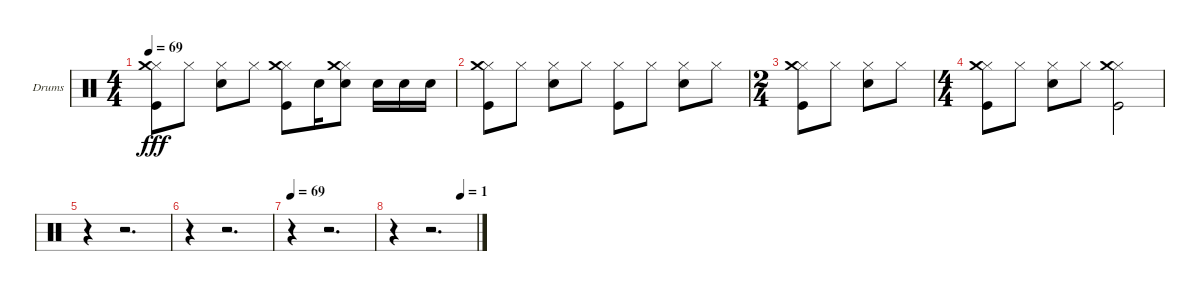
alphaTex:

\bracketExtendMode groupsimilarinstruments
\firstSystemTrackNameOrientation horizontal
\otherSystemsTrackNameOrientation horizontal
\track ("Барабаны" "Drums") {instrument percussion}
\staff {score}
\articulation defaults
\ts (4 4)
\tempo 69
\clef neutral
\ks c
("Hi-Hat (closed)" "Kick (hit)" "Crash medium (hit)").8{dy fff} "Hi-Hat (closed)".8 ("Hi-Hat (closed)" "Snare (hit) 2").8 "Hi-Hat (closed)".8 ("Hi-Hat (closed)" "Kick (hit)" "Crash medium (hit)").8 "Snare (hit) 2".16 ("Hi-Hat (closed)" "Snare (hit) 2" "Crash medium (hit)").8 "Snare (hit) 2".16 "Snare (hit) 2".16 "Snare (hit) 2".16 |
("Hi-Hat (closed)" "Kick (hit)" "Crash medium (hit)").8 "Hi-Hat (closed)".8 ("Hi-Hat (closed)" "Snare (hit) 2").8 "Hi-Hat (closed)".8 ("Hi-Hat (closed)" "Kick (hit)").8 "Hi-Hat (closed)".8 ("Hi-Hat (closed)" "Snare (hit) 2").8 "Hi-Hat (closed)".8 |
\ts (2 4)
("Hi-Hat (closed)" "Kick (hit)" "Crash medium (hit)").8 "Hi-Hat (closed)".8 ("Hi-Hat (closed)" "Snare (hit) 2").8 "Hi-Hat (closed)".8 |
\ts (4 4)
("Hi-Hat (closed)" "Kick (hit)" "Crash medium (hit)").8 "Hi-Hat (closed)".8 ("Hi-Hat (closed)" "Snare (hit) 2").8 "Hi-Hat (closed)".8 ("Hi-Hat (closed)" "Kick (hit)" "Crash medium (hit)").2 |
r.4 r.2{d} |
r.4 r.2{d} |
\tempo 69
r.4 r.2{d} |
\tempo (1 0.8125)
r.4 r.2{d}
